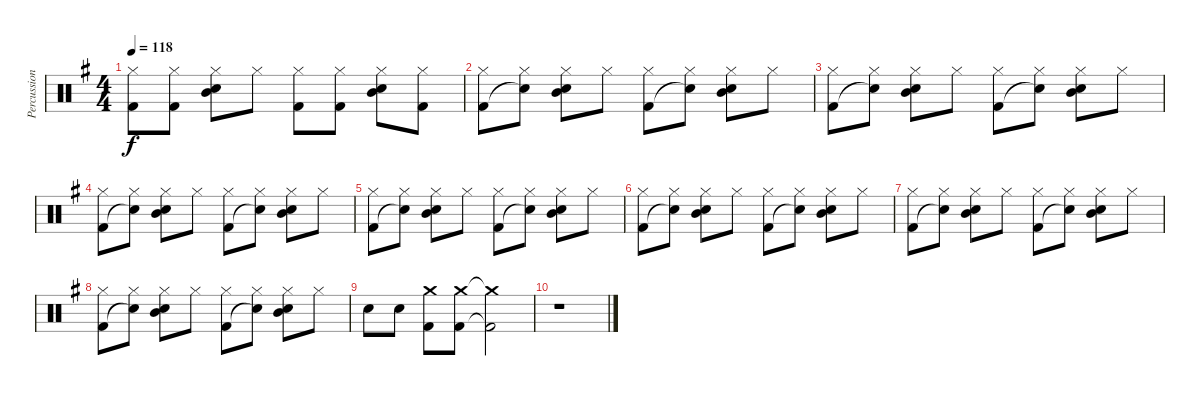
\track ("Percussion" "Percussion") {instrument percussion}
\staff {score}
\articulation defaults
\ts (4 4)
\tempo 118
\clef neutral
\ks g
("Hi-Hat (closed)" "Kick (hit) 2").8{dy f} ("Hi-Hat (closed)" "Kick (hit) 2").8 ("Hi-Hat (closed)" "Snare (hit) 2" "Mid Tom (hit)").8 "Hi-Hat (closed)".8 ("Hi-Hat (closed)" "Kick (hit) 2").8 ("Hi-Hat (closed)" "Kick (hit) 2").8 ("Hi-Hat (closed)" "Snare (hit) 2" "Mid Tom (hit)").8 ("Hi-Hat (closed)" "Kick (hit) 2").8 |
("Hi-Hat (closed)" "Kick (hit) 2").8 ("Hi-Hat (closed)" "Snare (hit)"{t}).8 ("Hi-Hat (closed)" "Snare (hit) 2" "Mid Tom (hit)").8 "Hi-Hat (closed)".8 ("Hi-Hat (closed)" "Kick (hit) 2").8 ("Hi-Hat (closed)" "Snare (hit)"{t}).8 ("Hi-Hat (closed)" "Snare (hit) 2" "Mid Tom (hit)").8 "Hi-Hat (closed)".8 |
("Hi-Hat (closed)" "Kick (hit) 2").8 ("Hi-Hat (closed)" "Snare (hit)"{t}).8 ("Hi-Hat (closed)" "Snare (hit) 2" "Mid Tom (hit)").8 "Hi-Hat (closed)".8 ("Hi-Hat (closed)" "Kick (hit) 2").8 ("Hi-Hat (closed)" "Snare (hit)"{t}).8 ("Hi-Hat (closed)" "Snare (hit) 2" "Mid Tom (hit)").8 "Hi-Hat (closed)".8 |
("Hi-Hat (closed)" "Kick (hit) 2").8 ("Hi-Hat (closed)" "Snare (hit)"{t}).8 ("Hi-Hat (closed)" "Snare (hit) 2" "Mid Tom (hit)").8 "Hi-Hat (closed)".8 ("Hi-Hat (closed)" "Kick (hit) 2").8 ("Hi-Hat (closed)" "Snare (hit)"{t}).8 ("Hi-Hat (closed)" "Snare (hit) 2" "Mid Tom (hit)").8 "Hi-Hat (closed)".8 |
("Hi-Hat (closed)" "Kick (hit) 2").8 ("Hi-Hat (closed)" "Snare (hit)"{t}).8 ("Hi-Hat (closed)" "Snare (hit) 2" "Mid Tom (hit)").8 "Hi-Hat (closed)".8 ("Hi-Hat (closed)" "Kick (hit) 2").8 ("Hi-Hat (closed)" "Snare (hit)"{t}).8 ("Hi-Hat (closed)" "Snare (hit) 2" "Mid Tom (hit)").8 "Hi-Hat (closed)".8 |
("Hi-Hat (closed)" "Kick (hit) 2").8 ("Hi-Hat (closed)" "Snare (hit)"{t}).8 ("Hi-Hat (closed)" "Snare (hit) 2" "Mid Tom (hit)").8 "Hi-Hat (closed)".8 ("Hi-Hat (closed)" "Kick (hit) 2").8 ("Hi-Hat (closed)" "Snare (hit)"{t}).8 ("Hi-Hat (closed)" "Snare (hit) 2" "Mid Tom (hit)").8 "Hi-Hat (closed)".8 |
("Hi-Hat (closed)" "Kick (hit) 2").8 ("Hi-Hat (closed)" "Snare (hit)"{t}).8 ("Hi-Hat (closed)" "Snare (hit) 2" "Mid Tom (hit)").8 "Hi-Hat (closed)".8 ("Hi-Hat (closed)" "Kick (hit) 2").8 ("Hi-Hat (closed)" "Snare (hit)"{t}).8 ("Hi-Hat (closed)" "Snare (hit) 2" "Mid Tom (hit)").8 "Hi-Hat (closed)".8 |
("Hi-Hat (closed)" "Kick (hit) 2").8 ("Hi-Hat (closed)" "Snare (hit)"{t}).8 ("Hi-Hat (closed)" "Snare (hit) 2" "Mid Tom (hit)").8 "Hi-Hat (closed)".8 ("Hi-Hat (closed)" "Kick (hit) 2").8 ("Hi-Hat (closed)" "Snare (hit)"{t}).8 ("Hi-Hat (closed)" "Snare (hit) 2" "Mid Tom (hit)").8 "Hi-Hat (closed)".8 |
"Snare (hit) 2".8 "Snare (hit) 2".8 ("Crash medium (hit)" "Kick (hit) 2").8{volume 0} ("Crash medium (hit)" "Kick (hit) 2").8 ("Crash medium (hit)"{t} "Kick (hit) 2"{t}).2 |
r.1
